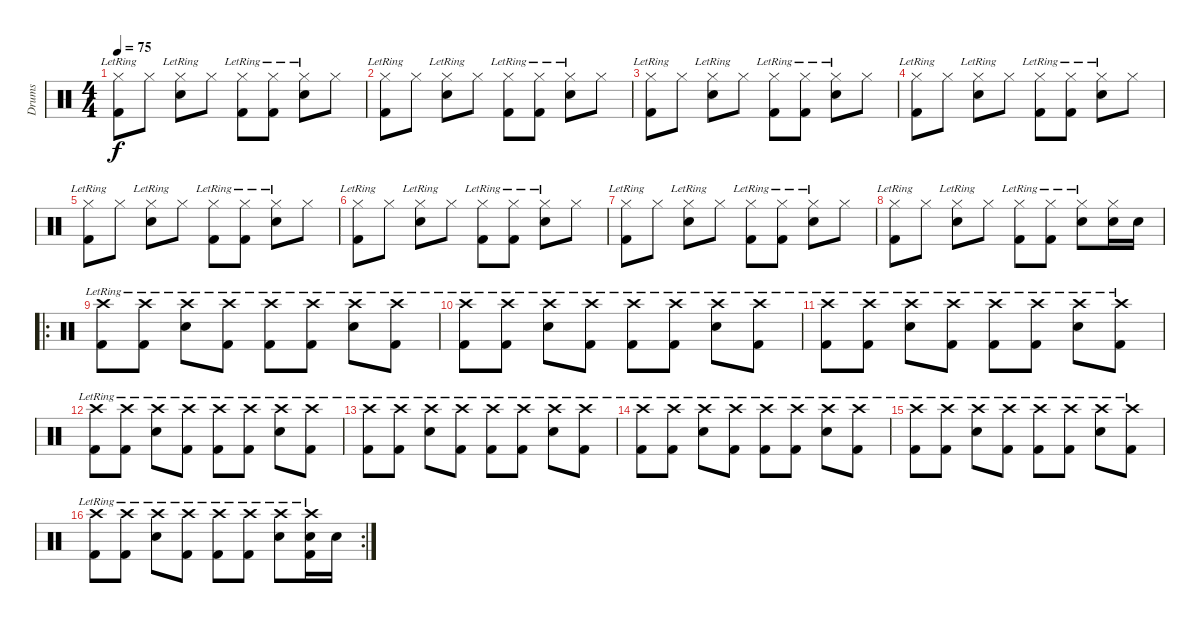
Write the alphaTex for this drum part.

\track ("Drums" "Drums") {instrument percussion}
\staff {score}
\articulation defaults
\ts (4 4)
\tempo 75
\clef neutral
\ks c
("Hi-Hat (closed)" "Kick (hit) 2"{lr}).8{dy f} "Hi-Hat (closed)".8 ("Hi-Hat (closed)" "Electric Snare (hit)"{lr}).8 "Hi-Hat (closed)".8 ("Hi-Hat (closed)" "Kick (hit) 2"{lr}).8 ("Hi-Hat (closed)" "Kick (hit) 2"{lr}).8 ("Hi-Hat (closed)" "Electric Snare (hit)"{lr}).8 "Hi-Hat (closed)".8 |
("Hi-Hat (closed)" "Kick (hit) 2"{lr}).8 "Hi-Hat (closed)".8 ("Hi-Hat (closed)" "Electric Snare (hit)"{lr}).8 "Hi-Hat (closed)".8 ("Hi-Hat (closed)" "Kick (hit) 2"{lr}).8 ("Hi-Hat (closed)" "Kick (hit) 2"{lr}).8 ("Hi-Hat (closed)" "Electric Snare (hit)"{lr}).8 "Hi-Hat (closed)".8 |
("Hi-Hat (closed)" "Kick (hit) 2"{lr}).8 "Hi-Hat (closed)".8 ("Hi-Hat (closed)" "Electric Snare (hit)"{lr}).8 "Hi-Hat (closed)".8 ("Hi-Hat (closed)" "Kick (hit) 2"{lr}).8 ("Hi-Hat (closed)" "Kick (hit) 2"{lr}).8 ("Hi-Hat (closed)" "Electric Snare (hit)"{lr}).8 "Hi-Hat (closed)".8 |
("Hi-Hat (closed)" "Kick (hit) 2"{lr}).8 "Hi-Hat (closed)".8 ("Hi-Hat (closed)" "Electric Snare (hit)"{lr}).8 "Hi-Hat (closed)".8 ("Hi-Hat (closed)" "Kick (hit) 2"{lr}).8 ("Hi-Hat (closed)" "Kick (hit) 2"{lr}).8 ("Hi-Hat (closed)" "Electric Snare (hit)"{lr}).8 "Hi-Hat (closed)".8 |
("Hi-Hat (closed)" "Kick (hit) 2"{lr}).8 "Hi-Hat (closed)".8 ("Hi-Hat (closed)" "Electric Snare (hit)"{lr}).8 "Hi-Hat (closed)".8 ("Hi-Hat (closed)" "Kick (hit) 2"{lr}).8 ("Hi-Hat (closed)" "Kick (hit) 2"{lr}).8 ("Hi-Hat (closed)" "Electric Snare (hit)"{lr}).8 "Hi-Hat (closed)".8 |
("Hi-Hat (closed)" "Kick (hit) 2"{lr}).8 "Hi-Hat (closed)".8 ("Hi-Hat (closed)" "Electric Snare (hit)"{lr}).8 "Hi-Hat (closed)".8 ("Hi-Hat (closed)" "Kick (hit) 2"{lr}).8 ("Hi-Hat (closed)" "Kick (hit) 2"{lr}).8 ("Hi-Hat (closed)" "Electric Snare (hit)"{lr}).8 "Hi-Hat (closed)".8 |
("Hi-Hat (closed)" "Kick (hit) 2"{lr}).8 "Hi-Hat (closed)".8 ("Hi-Hat (closed)" "Electric Snare (hit)"{lr}).8 "Hi-Hat (closed)".8 ("Hi-Hat (closed)" "Kick (hit) 2"{lr}).8 ("Hi-Hat (closed)" "Kick (hit) 2"{lr}).8 ("Hi-Hat (closed)" "Electric Snare (hit)"{lr}).8 "Hi-Hat (closed)".8 |
("Hi-Hat (closed)" "Kick (hit) 2"{lr}).8 "Hi-Hat (closed)".8 ("Hi-Hat (closed)" "Electric Snare (hit)"{lr}).8 "Hi-Hat (closed)".8 ("Hi-Hat (closed)" "Kick (hit) 2"{lr}).8 ("Hi-Hat (closed)" "Kick (hit) 2"{lr}).8 ("Hi-Hat (closed)" "Electric Snare (hit)"{lr}).8 ("Hi-Hat (closed)" "Electric Snare (hit)").16 "Electric Snare (hit)".16 |
\ro
("Crash high (hit)"{lr} "Kick (hit) 2"{lr}).8 ("Crash high (hit)"{lr} "Kick (hit) 2"{lr}).8 ("Crash high (hit)"{lr} "Electric Snare (hit)"{lr}).8 ("Crash high (hit)"{lr} "Kick (hit) 2"{lr}).8 ("Crash high (hit)"{lr} "Kick (hit) 2"{lr}).8 ("Crash high (hit)"{lr} "Kick (hit) 2"{lr}).8 ("Crash high (hit)"{lr} "Electric Snare (hit)"{lr}).8 ("Crash high (hit)"{lr} "Kick (hit) 2"{lr}).8 |
("Crash high (hit)"{lr} "Kick (hit) 2"{lr}).8 ("Crash high (hit)"{lr} "Kick (hit) 2"{lr}).8 ("Crash high (hit)"{lr} "Electric Snare (hit)"{lr}).8 ("Crash high (hit)"{lr} "Kick (hit) 2"{lr}).8 ("Crash high (hit)"{lr} "Kick (hit) 2"{lr}).8 ("Crash high (hit)"{lr} "Kick (hit) 2"{lr}).8 ("Crash high (hit)"{lr} "Electric Snare (hit)"{lr}).8 ("Crash high (hit)"{lr} "Kick (hit) 2"{lr}).8 |
("Crash high (hit)"{lr} "Kick (hit) 2"{lr}).8 ("Crash high (hit)"{lr} "Kick (hit) 2"{lr}).8 ("Crash high (hit)"{lr} "Electric Snare (hit)"{lr}).8 ("Crash high (hit)"{lr} "Kick (hit) 2"{lr}).8 ("Crash high (hit)"{lr} "Kick (hit) 2"{lr}).8 ("Crash high (hit)"{lr} "Kick (hit) 2"{lr}).8 ("Crash high (hit)"{lr} "Electric Snare (hit)"{lr}).8 ("Crash high (hit)"{lr} "Kick (hit) 2"{lr}).8 |
("Crash high (hit)"{lr} "Kick (hit) 2"{lr}).8 ("Crash high (hit)"{lr} "Kick (hit) 2"{lr}).8 ("Crash high (hit)"{lr} "Electric Snare (hit)"{lr}).8 ("Crash high (hit)"{lr} "Kick (hit) 2"{lr}).8 ("Crash high (hit)"{lr} "Kick (hit) 2"{lr}).8 ("Crash high (hit)"{lr} "Kick (hit) 2"{lr}).8 ("Crash high (hit)"{lr} "Electric Snare (hit)"{lr}).8 ("Crash high (hit)"{lr} "Kick (hit) 2"{lr}).8 |
("Crash high (hit)"{lr} "Kick (hit) 2"{lr}).8 ("Crash high (hit)"{lr} "Kick (hit) 2"{lr}).8 ("Crash high (hit)"{lr} "Electric Snare (hit)"{lr}).8 ("Crash high (hit)"{lr} "Kick (hit) 2"{lr}).8 ("Crash high (hit)"{lr} "Kick (hit) 2"{lr}).8 ("Crash high (hit)"{lr} "Kick (hit) 2"{lr}).8 ("Crash high (hit)"{lr} "Electric Snare (hit)"{lr}).8 ("Crash high (hit)"{lr} "Kick (hit) 2"{lr}).8 |
("Crash high (hit)"{lr} "Kick (hit) 2"{lr}).8 ("Crash high (hit)"{lr} "Kick (hit) 2"{lr}).8 ("Crash high (hit)"{lr} "Electric Snare (hit)"{lr}).8 ("Crash high (hit)"{lr} "Kick (hit) 2"{lr}).8 ("Crash high (hit)"{lr} "Kick (hit) 2"{lr}).8 ("Crash high (hit)"{lr} "Kick (hit) 2"{lr}).8 ("Crash high (hit)"{lr} "Electric Snare (hit)"{lr}).8 ("Crash high (hit)"{lr} "Kick (hit) 2"{lr}).8 |
("Crash high (hit)"{lr} "Kick (hit) 2"{lr}).8 ("Crash high (hit)"{lr} "Kick (hit) 2"{lr}).8 ("Crash high (hit)"{lr} "Electric Snare (hit)"{lr}).8 ("Crash high (hit)"{lr} "Kick (hit) 2"{lr}).8 ("Crash high (hit)"{lr} "Kick (hit) 2"{lr}).8 ("Crash high (hit)"{lr} "Kick (hit) 2"{lr}).8 ("Crash high (hit)"{lr} "Electric Snare (hit)"{lr}).8 ("Crash high (hit)"{lr} "Kick (hit) 2"{lr}).8 |
\rc 2
("Crash high (hit)"{lr} "Kick (hit) 2"{lr}).8 ("Crash high (hit)"{lr} "Kick (hit) 2"{lr}).8 ("Crash high (hit)"{lr} "Electric Snare (hit)"{lr}).8 ("Crash high (hit)"{lr} "Kick (hit) 2"{lr}).8 ("Crash high (hit)"{lr} "Kick (hit) 2"{lr}).8 ("Crash high (hit)" "Kick (hit) 2"{lr}).8 ("Crash high (hit)"{lr} "Electric Snare (hit)"{lr}).8 ("Crash high (hit)"{lr} "Electric Snare (hit)" "Kick (hit) 2"{lr}).16 "Electric Snare (hit)".16
